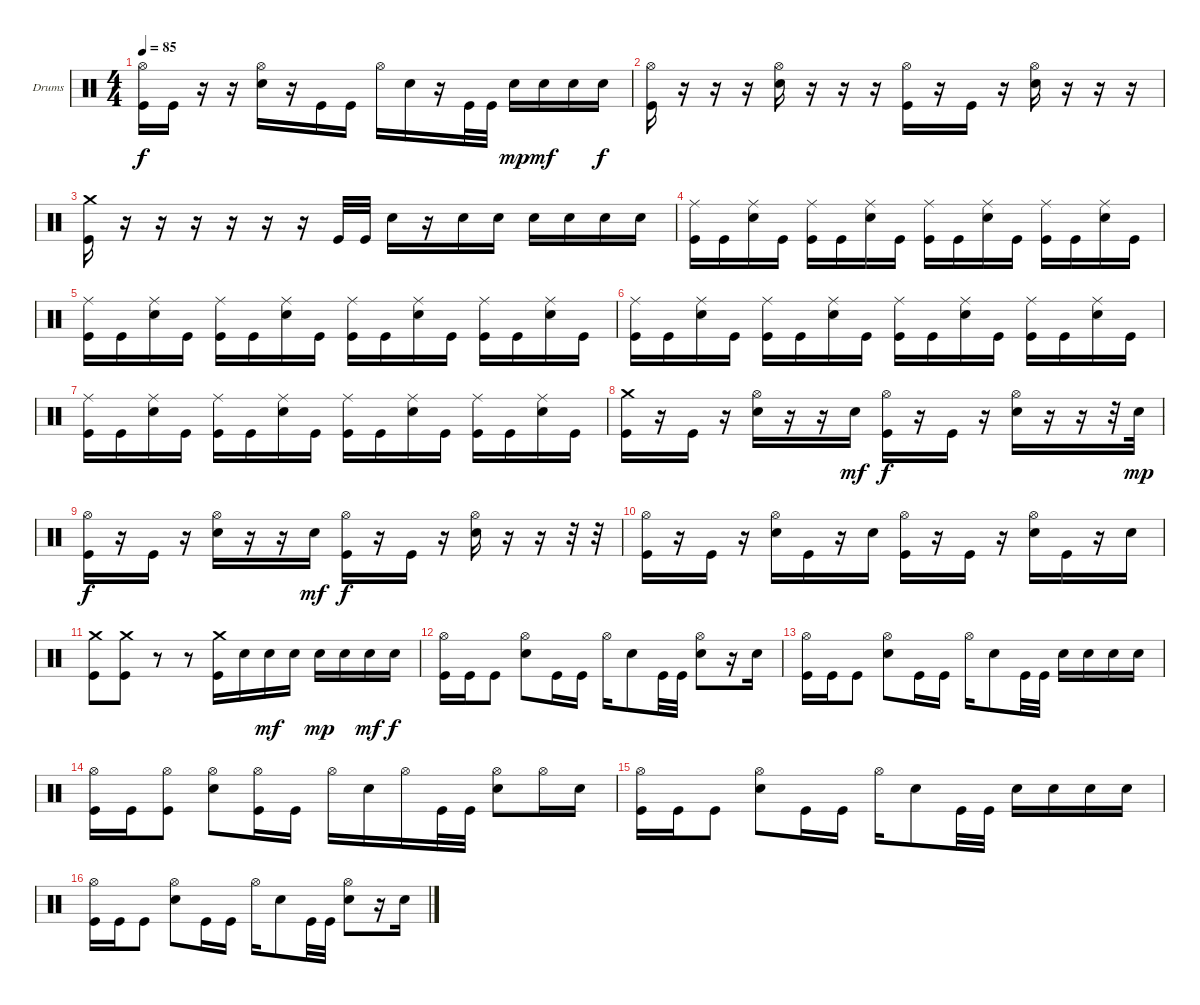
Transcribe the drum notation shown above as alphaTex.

\defaultSystemsLayout 4
\bracketExtendMode groupsimilarinstruments
\firstSystemTrackNameOrientation horizontal
\otherSystemsTrackNameOrientation horizontal
\track ("Drumkit" "Drums") {instrument percussion}
\staff {score}
\articulation defaults
\ts (4 4)
\tempo 85
\clef neutral
\scale
0.333333
\ks c
("Hi-Hat (open)" "Kick (hit)").16{dy f} "Kick (hit)".16 r.16 r.16 ("Hi-Hat (open)" "Snare (hit) 2").16 r.16 "Kick (hit)".16 "Kick (hit)".16 "Hi-Hat (open)".16 "Snare (hit) 2".16 r.16 "Kick (hit)".32 "Kick (hit)".32 "Snare (hit) 2".16{dy mp} "Snare (hit) 2".16{dy mf} "Snare (hit) 2".16 "Snare (hit) 2".16{dy f} |
\scale
0.333333 ("Hi-Hat (open)" "Kick (hit)").16 r.16 r.16 r.16 ("Hi-Hat (open)" "Snare (hit) 2").16 r.16 r.16 r.16 ("Hi-Hat (open)" "Kick (hit)").16 r.16 "Kick (hit)".16 r.16 ("Hi-Hat (open)" "Snare (hit) 2").16 r.16 r.16 r.16 |
\scale
0.333333 ("Crash medium (hit)" "Kick (hit)").16 r.16 r.16 r.16 r.16 r.16 r.16 "Kick (hit)".32 "Kick (hit)".32 "Snare (hit) 2".16 r.16 "Snare (hit) 2".16 "Snare (hit) 2".16 "Snare (hit) 2".16 "Snare (hit) 2".16 "Snare (hit) 2".16 "Snare (hit) 2".16 |
\scale
0.333333 ("Ride (middle)" "Kick (hit)").16 "Kick (hit)".16 ("Ride (middle)" "Snare (hit) 2").16 "Kick (hit)".16 ("Ride (middle)" "Kick (hit)").16 "Kick (hit)".16 ("Ride (middle)" "Snare (hit) 2").16 "Kick (hit)".16 ("Ride (middle)" "Kick (hit)").16 "Kick (hit)".16 ("Ride (middle)" "Snare (hit) 2").16 "Kick (hit)".16 ("Ride (middle)" "Kick (hit)").16 "Kick (hit)".16 ("Ride (middle)" "Snare (hit) 2").16 "Kick (hit)".16 |
\scale
0.333333 ("Ride (middle)" "Kick (hit)").16 "Kick (hit)".16 ("Ride (middle)" "Snare (hit) 2").16 "Kick (hit)".16 ("Ride (middle)" "Kick (hit)").16 "Kick (hit)".16 ("Ride (middle)" "Snare (hit) 2").16 "Kick (hit)".16 ("Ride (middle)" "Kick (hit)").16 "Kick (hit)".16 ("Ride (middle)" "Snare (hit) 2").16 "Kick (hit)".16 ("Ride (middle)" "Kick (hit)").16 "Kick (hit)".16 ("Ride (middle)" "Snare (hit) 2").16 "Kick (hit)".16 |
\scale
0.333333 ("Ride (middle)" "Kick (hit)").16 "Kick (hit)".16 ("Ride (middle)" "Snare (hit) 2").16 "Kick (hit)".16 ("Ride (middle)" "Kick (hit)").16 "Kick (hit)".16 ("Ride (middle)" "Snare (hit) 2").16 "Kick (hit)".16 ("Ride (middle)" "Kick (hit)").16 "Kick (hit)".16 ("Ride (middle)" "Snare (hit) 2").16 "Kick (hit)".16 ("Ride (middle)" "Kick (hit)").16 "Kick (hit)".16 ("Ride (middle)" "Snare (hit) 2").16 "Kick (hit)".16 |
\scale
0.333333 ("Ride (middle)" "Kick (hit)").16 "Kick (hit)".16 ("Ride (middle)" "Snare (hit) 2").16 "Kick (hit)".16 ("Ride (middle)" "Kick (hit)").16 "Kick (hit)".16 ("Ride (middle)" "Snare (hit) 2").16 "Kick (hit)".16 ("Ride (middle)" "Kick (hit)").16 "Kick (hit)".16 ("Ride (middle)" "Snare (hit) 2").16 "Kick (hit)".16 ("Ride (middle)" "Kick (hit)").16 "Kick (hit)".16 ("Ride (middle)" "Snare (hit) 2").16 "Kick (hit)".16 |
\scale
0.333333 ("Crash medium (hit)" "Kick (hit)").16 r.16 "Kick (hit)".16 r.16 ("Hi-Hat (open)" "Snare (hit) 2").16 r.16 r.16 "Snare (hit) 2".16{dy mf} ("Hi-Hat (open)" "Kick (hit)").16{dy f} r.16 "Kick (hit)".16 r.16 ("Hi-Hat (open)" "Snare (hit) 2").16 r.16 r.16 r.32 "Snare (hit) 2".32{dy mp} |
\scale
0.333333 ("Hi-Hat (open)" "Kick (hit)").16{dy f} r.16 "Kick (hit)".16 r.16 ("Hi-Hat (open)" "Snare (hit) 2").16 r.16 r.16 "Snare (hit) 2".16{dy mf} ("Hi-Hat (open)" "Kick (hit)").16{dy f} r.16 "Kick (hit)".16 r.16 ("Hi-Hat (open)" "Snare (hit) 2").16 r.16 r.16 r.32 r.32 |
\scale
0.333333 ("Hi-Hat (open)" "Kick (hit)").16 r.16 "Kick (hit)".16 r.16 ("Hi-Hat (open)" "Snare (hit) 2").16 "Kick (hit)".16 r.16 "Snare (hit) 2".16 ("Hi-Hat (open)" "Kick (hit)").16 r.16 "Kick (hit)".16 r.16 ("Hi-Hat (open)" "Snare (hit) 2").16 "Kick (hit)".16 r.16 "Snare (hit) 2".16 |
\scale
0.333333 ("Crash medium (hit)" "Kick (hit)").8 ("Crash medium (hit)" "Kick (hit)").8 r.8 r.8 ("Crash medium (hit)" "Kick (hit)").16 "Snare (hit) 2".16 "Snare (hit) 2".16{dy mf} "Snare (hit) 2".16 "Snare (hit) 2".16{dy mp} "Snare (hit) 2".16 "Snare (hit) 2".16{dy mf} "Snare (hit) 2".16{dy f} |
\scale
0.333333 ("Hi-Hat (open)" "Kick (hit)").16 "Kick (hit)".16 "Kick (hit)".8 ("Hi-Hat (open)" "Snare (hit) 2").8 "Kick (hit)".16 "Kick (hit)".16 "Hi-Hat (open)".16 "Snare (hit) 2".8 "Kick (hit)".32 "Kick (hit)".32 ("Hi-Hat (open)" "Snare (hit) 2").8 r.16 "Snare (hit) 2".16 |
\scale
0.333333 ("Hi-Hat (open)" "Kick (hit)").16 "Kick (hit)".16 "Kick (hit)".8 ("Hi-Hat (open)" "Snare (hit) 2").8 "Kick (hit)".16 "Kick (hit)".16 "Hi-Hat (open)".16 "Snare (hit) 2".8 "Kick (hit)".32 "Kick (hit)".32 "Snare (hit) 2".16 "Snare (hit) 2".16 "Snare (hit) 2".16 "Snare (hit) 2".16 |
\scale
0.333333 ("Hi-Hat (open)" "Kick (hit)").16 "Kick (hit)".16 ("Hi-Hat (open)" "Kick (hit)").8 ("Hi-Hat (open)" "Snare (hit) 2").8 ("Hi-Hat (open)" "Kick (hit)").16 "Kick (hit)".16 "Hi-Hat (open)".16 "Snare (hit) 2".16 "Hi-Hat (open)".16 "Kick (hit)".32 "Kick (hit)".32 ("Hi-Hat (open)" "Snare (hit) 2").8 "Hi-Hat (open)".16 "Snare (hit) 2".16 |
\scale
0.333333 ("Hi-Hat (open)" "Kick (hit)").16 "Kick (hit)".16 "Kick (hit)".8 ("Hi-Hat (open)" "Snare (hit) 2").8 "Kick (hit)".16 "Kick (hit)".16 "Hi-Hat (open)".16 "Snare (hit) 2".8 "Kick (hit)".32 "Kick (hit)".32 "Snare (hit) 2".16 "Snare (hit) 2".16 "Snare (hit) 2".16 "Snare (hit) 2".16 |
\scale
0.333333 ("Hi-Hat (open)" "Kick (hit)").16 "Kick (hit)".16 "Kick (hit)".8 ("Hi-Hat (open)" "Snare (hit) 2").8 "Kick (hit)".16 "Kick (hit)".16 "Hi-Hat (open)".16 "Snare (hit) 2".8 "Kick (hit)".32 "Kick (hit)".32 ("Hi-Hat (open)" "Snare (hit) 2").8 r.16 "Snare (hit) 2".16
